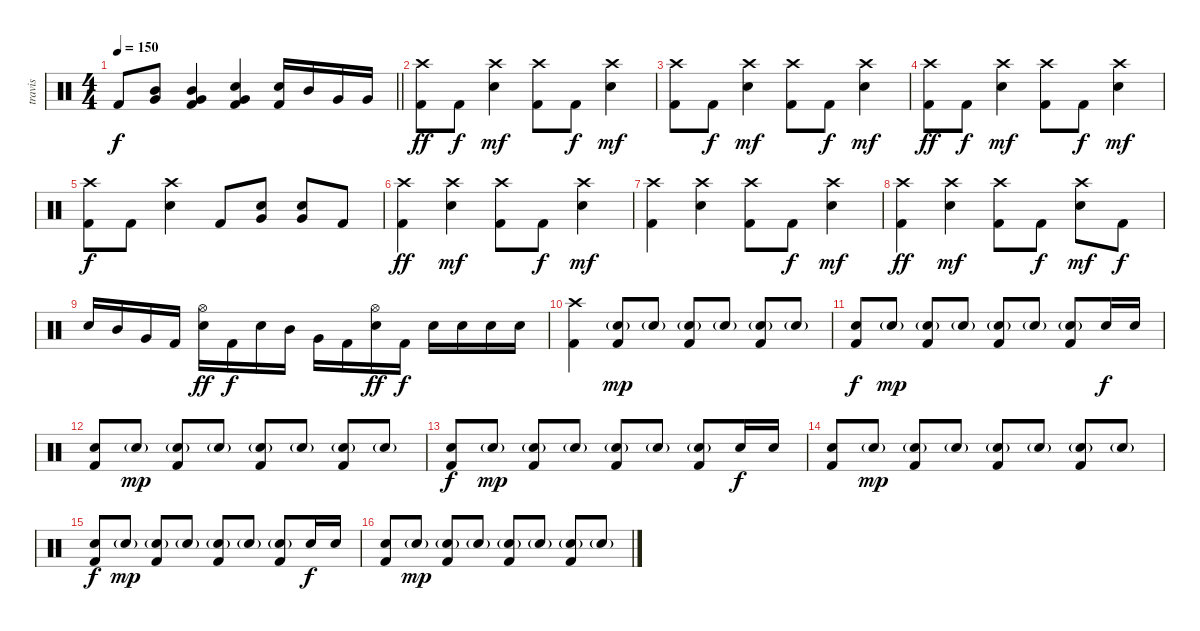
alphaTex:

\track ("travis" "travis") {instrument percussion}
\staff {score}
\articulation defaults
\ts (4 4)
\tempo 150
\clef neutral
\barLineRight lightlight
\ks c "Kick (hit) 2".8{dy f}
("Mid Tom (hit)" "Very Low Tom (hit)").8 ("Mid Tom (hit)" "Very Low Tom (hit)" "Kick (hit) 2").4 ("Very Low Tom (hit)" "Electric Snare (hit)" "Kick (hit) 2").4 ("Electric Snare (hit)" "Kick (hit) 2").16 "Mid Tom (hit)".16 "Very Low Tom (hit)".16 "Very Low Tom (hit)".16 |
("Crash high (hit)" "Kick (hit) 2").8{dy ff} "Kick (hit) 2".8{dy f} ("Crash high (hit)" "Electric Snare (hit)").4{dy mf} ("Crash high (hit)" "Kick (hit) 2").8 "Kick (hit) 2".8{dy f} ("Crash high (hit)" "Electric Snare (hit)").4{dy mf} |
("Crash high (hit)" "Kick (hit) 2").8 "Kick (hit) 2".8{dy f} ("Crash high (hit)" "Electric Snare (hit)").4{dy mf} ("Crash high (hit)" "Kick (hit) 2").8 "Kick (hit) 2".8{dy f} ("Crash high (hit)" "Electric Snare (hit)").4{dy mf} |
("Crash high (hit)" "Kick (hit) 2").8{dy ff} "Kick (hit) 2".8{dy f} ("Crash high (hit)" "Electric Snare (hit)").4{dy mf} ("Crash high (hit)" "Kick (hit) 2").8 "Kick (hit) 2".8{dy f} ("Crash high (hit)" "Electric Snare (hit)").4{dy mf} |
("Crash high (hit)" "Kick (hit) 2").8{dy f} "Kick (hit) 2".8 ("Crash high (hit)" "Electric Snare (hit)").4 "Kick (hit) 2".8 ("Very Low Tom (hit)" "Electric Snare (hit)").8 ("Very Low Tom (hit)" "Electric Snare (hit)").8 "Kick (hit) 2".8 |
("Crash high (hit)" "Kick (hit) 2").4{dy ff} ("Crash high (hit)" "Electric Snare (hit)").4{dy mf} ("Crash high (hit)" "Kick (hit) 2").8 "Kick (hit) 2".8{dy f} ("Crash high (hit)" "Electric Snare (hit)").4{dy mf} |
("Crash high (hit)" "Kick (hit) 2").4 ("Crash high (hit)" "Electric Snare (hit)").4 ("Crash high (hit)" "Kick (hit) 2").8 "Kick (hit) 2".8{dy f} ("Crash high (hit)" "Electric Snare (hit)").4{dy mf} |
("Crash high (hit)" "Kick (hit) 2").4{dy ff} ("Crash high (hit)" "Electric Snare (hit)").4{dy mf} ("Crash high (hit)" "Kick (hit) 2").8 "Kick (hit) 2".8{dy f} ("Crash high (hit)" "Electric Snare (hit)").8{dy mf} "Kick (hit) 2".8{dy f} |
"Electric Snare (hit)".16 "Mid Tom (hit)".16 "Very Low Tom (hit)".16 "Kick (hit) 2".16 ("Hi-Hat (open)" "Electric Snare (hit)").16{dy ff} "Kick (hit) 2".16{dy f} "Electric Snare (hit)".16 "Mid Tom (hit)".16 "Very Low Tom (hit)".16 "Kick (hit) 2".16 ("Hi-Hat (open)" "Electric Snare (hit)").16{dy ff} "Kick (hit) 2".16{dy f} "Electric Snare (hit)".16 "Electric Snare (hit)".16 "Electric Snare (hit)".16 "Electric Snare (hit)".16 |
("Crash high (hit)" "Kick (hit) 2").4 ("Electric Snare (hit)"{g} "Kick (hit) 2").8{dy mp} "Electric Snare (hit)"{g}.8 ("Electric Snare (hit)"{g} "Kick (hit) 2").8 "Electric Snare (hit)"{g}.8 ("Electric Snare (hit)"{g} "Kick (hit) 2").8 "Electric Snare (hit)"{g}.8 |
("Electric Snare (hit)" "Kick (hit) 2").8{dy f} "Electric Snare (hit)"{g}.8{dy mp} ("Electric Snare (hit)"{g} "Kick (hit) 2").8 "Electric Snare (hit)"{g}.8 ("Electric Snare (hit)"{g} "Kick (hit) 2").8 "Electric Snare (hit)"{g}.8 ("Electric Snare (hit)"{g} "Kick (hit) 2").8 "Electric Snare (hit)".16{dy f} "Electric Snare (hit)".16 |
("Electric Snare (hit)" "Kick (hit) 2").8 "Electric Snare (hit)"{g}.8{dy mp} ("Electric Snare (hit)"{g} "Kick (hit) 2").8 "Electric Snare (hit)"{g}.8 ("Electric Snare (hit)"{g} "Kick (hit) 2").8 "Electric Snare (hit)"{g}.8 ("Electric Snare (hit)"{g} "Kick (hit) 2").8 "Electric Snare (hit)"{g}.8 |
("Electric Snare (hit)" "Kick (hit) 2").8{dy f} "Electric Snare (hit)"{g}.8{dy mp} ("Electric Snare (hit)"{g} "Kick (hit) 2").8 "Electric Snare (hit)"{g}.8 ("Electric Snare (hit)"{g} "Kick (hit) 2").8 "Electric Snare (hit)"{g}.8 ("Electric Snare (hit)"{g} "Kick (hit) 2").8 "Electric Snare (hit)".16{dy f} "Electric Snare (hit)".16 |
("Electric Snare (hit)" "Kick (hit) 2").8 "Electric Snare (hit)"{g}.8{dy mp} ("Electric Snare (hit)"{g} "Kick (hit) 2").8 "Electric Snare (hit)"{g}.8 ("Electric Snare (hit)"{g} "Kick (hit) 2").8 "Electric Snare (hit)"{g}.8 ("Electric Snare (hit)"{g} "Kick (hit) 2").8 "Electric Snare (hit)"{g}.8 |
("Electric Snare (hit)" "Kick (hit) 2").8{dy f} "Electric Snare (hit)"{g}.8{dy mp} ("Electric Snare (hit)"{g} "Kick (hit) 2").8 "Electric Snare (hit)"{g}.8 ("Electric Snare (hit)"{g} "Kick (hit) 2").8 "Electric Snare (hit)"{g}.8 ("Electric Snare (hit)"{g} "Kick (hit) 2").8 "Electric Snare (hit)".16{dy f} "Electric Snare (hit)".16 |
("Electric Snare (hit)" "Kick (hit) 2").8 "Electric Snare (hit)"{g}.8{dy mp} ("Electric Snare (hit)"{g} "Kick (hit) 2").8 "Electric Snare (hit)"{g}.8 ("Electric Snare (hit)"{g} "Kick (hit) 2").8 "Electric Snare (hit)"{g}.8 ("Electric Snare (hit)"{g} "Kick (hit) 2").8 "Electric Snare (hit)"{g}.8
